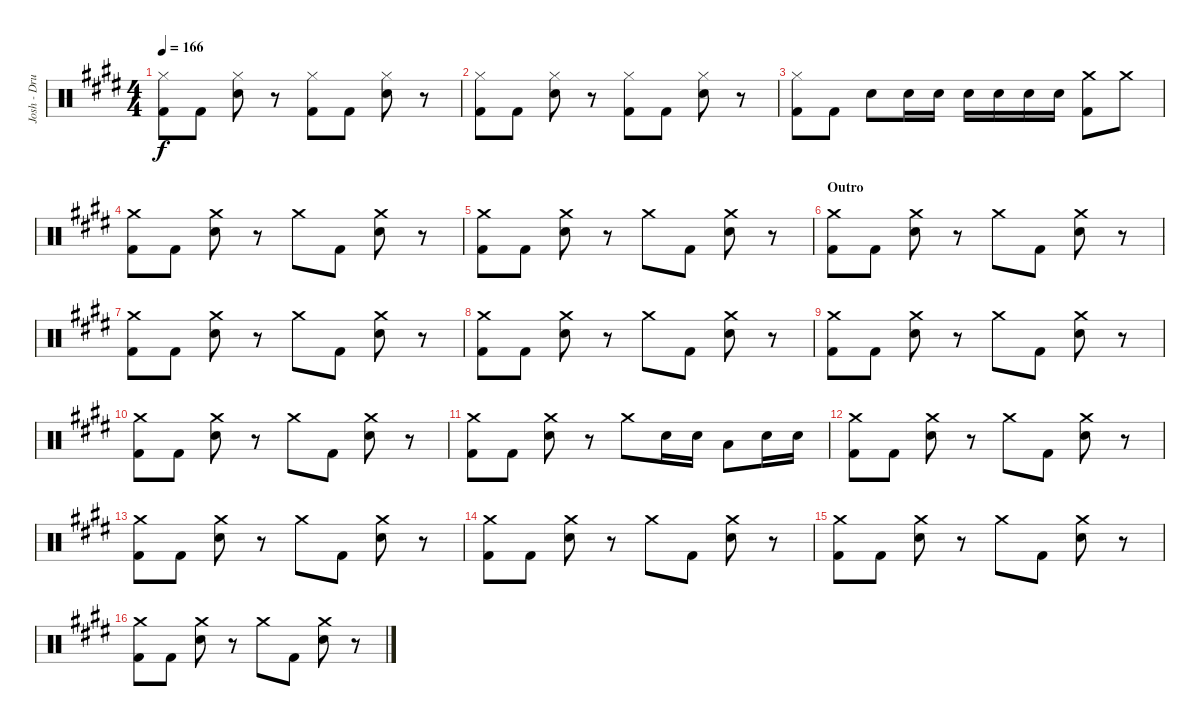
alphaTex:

\track ("Josh - Drums" "Josh - Dru") {instrument percussion}
\staff {score}
\articulation defaults
\ts (4 4)
\tempo 166
\clef neutral
\ks e
("Hi-Hat (closed)" "Kick (hit) 2").8{dy f} "Kick (hit) 2".8 ("Hi-Hat (closed)" "Electric Snare (hit)").8 r.8 ("Hi-Hat (closed)" "Kick (hit) 2").8 "Kick (hit) 2".8 ("Hi-Hat (closed)" "Electric Snare (hit)").8 r.8 |
("Hi-Hat (closed)" "Kick (hit) 2").8 "Kick (hit) 2".8 ("Hi-Hat (closed)" "Electric Snare (hit)").8 r.8 ("Hi-Hat (closed)" "Kick (hit) 2").8 "Kick (hit) 2".8 ("Hi-Hat (closed)" "Electric Snare (hit)").8 r.8 |
("Hi-Hat (closed)" "Kick (hit) 2").8 "Kick (hit) 2".8 "Electric Snare (hit)".8 "Electric Snare (hit)".16 "Electric Snare (hit)".16 "Electric Snare (hit)".16 "Electric Snare (hit)".16 "Electric Snare (hit)".16 "Electric Snare (hit)".16 ("Crash medium (hit)" "Kick (hit) 2").8 "Crash medium (hit)".8 |
("Crash medium (hit)" "Kick (hit) 2").8 "Kick (hit) 2".8 ("Crash medium (hit)" "Electric Snare (hit)").8 r.8 "Crash medium (hit)".8 "Kick (hit) 2".8 ("Crash medium (hit)" "Electric Snare (hit)").8 r.8 |
("Crash medium (hit)" "Kick (hit) 2").8 "Kick (hit) 2".8 ("Crash medium (hit)" "Electric Snare (hit)").8 r.8 "Crash medium (hit)".8 "Kick (hit) 2".8 ("Crash medium (hit)" "Electric Snare (hit)").8 r.8 |
\section ("" "Outro")
("Crash medium (hit)" "Kick (hit) 2").8 "Kick (hit) 2".8 ("Crash medium (hit)" "Electric Snare (hit)").8 r.8 "Crash medium (hit)".8 "Kick (hit) 2".8 ("Crash medium (hit)" "Electric Snare (hit)").8 r.8 |
("Crash medium (hit)" "Kick (hit) 2").8 "Kick (hit) 2".8 ("Crash medium (hit)" "Electric Snare (hit)").8 r.8 "Crash medium (hit)".8 "Kick (hit) 2".8 ("Crash medium (hit)" "Electric Snare (hit)").8 r.8 |
("Crash medium (hit)" "Kick (hit) 2").8 "Kick (hit) 2".8 ("Crash medium (hit)" "Electric Snare (hit)").8 r.8 "Crash medium (hit)".8 "Kick (hit) 2".8 ("Crash medium (hit)" "Electric Snare (hit)").8 r.8 |
("Crash medium (hit)" "Kick (hit) 2").8 "Kick (hit) 2".8 ("Crash medium (hit)" "Electric Snare (hit)").8 r.8 "Crash medium (hit)".8 "Kick (hit) 2".8 ("Crash medium (hit)" "Electric Snare (hit)").8 r.8 |
("Crash medium (hit)" "Kick (hit) 2").8 "Kick (hit) 2".8 ("Crash medium (hit)" "Electric Snare (hit)").8 r.8 "Crash medium (hit)".8 "Kick (hit) 2".8 ("Crash medium (hit)" "Electric Snare (hit)").8 r.8 |
("Crash medium (hit)" "Kick (hit) 2").8 "Kick (hit) 2".8 ("Crash medium (hit)" "Electric Snare (hit)").8 r.8 "Crash medium (hit)".8 "Electric Snare (hit)".16 "Electric Snare (hit)".16 "Low Floor Tom (hit)".8 "Electric Snare (hit)".16 "Electric Snare (hit)".16 |
("Crash medium (hit)" "Kick (hit) 2").8 "Kick (hit) 2".8 ("Crash medium (hit)" "Electric Snare (hit)").8 r.8 "Crash medium (hit)".8 "Kick (hit) 2".8 ("Crash medium (hit)" "Electric Snare (hit)").8 r.8 |
("Crash medium (hit)" "Kick (hit) 2").8 "Kick (hit) 2".8 ("Crash medium (hit)" "Electric Snare (hit)").8 r.8 "Crash medium (hit)".8 "Kick (hit) 2".8 ("Crash medium (hit)" "Electric Snare (hit)").8 r.8 |
("Crash medium (hit)" "Kick (hit) 2").8 "Kick (hit) 2".8 ("Crash medium (hit)" "Electric Snare (hit)").8 r.8 "Crash medium (hit)".8 "Kick (hit) 2".8 ("Crash medium (hit)" "Electric Snare (hit)").8 r.8 |
("Crash medium (hit)" "Kick (hit) 2").8 "Kick (hit) 2".8 ("Crash medium (hit)" "Electric Snare (hit)").8 r.8 "Crash medium (hit)".8 "Kick (hit) 2".8 ("Crash medium (hit)" "Electric Snare (hit)").8 r.8 |
("Crash medium (hit)" "Kick (hit) 2").8 "Kick (hit) 2".8 ("Crash medium (hit)" "Electric Snare (hit)").8 r.8 "Crash medium (hit)".8 "Kick (hit) 2".8 ("Crash medium (hit)" "Electric Snare (hit)").8 r.8
